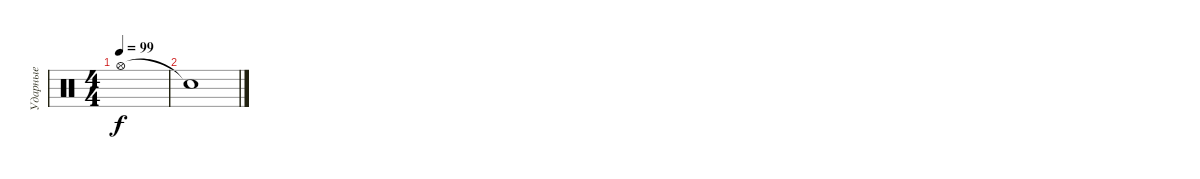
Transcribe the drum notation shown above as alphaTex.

\track ("Ударные" "Ударные") {instrument percussion}
\staff
\articulation defaults
\ts (4 4)
\tempo 99
\clef neutral
\ks c "Hi-Hat (open)".1{dy f}
|
"Snare (hit)"{t}.1
